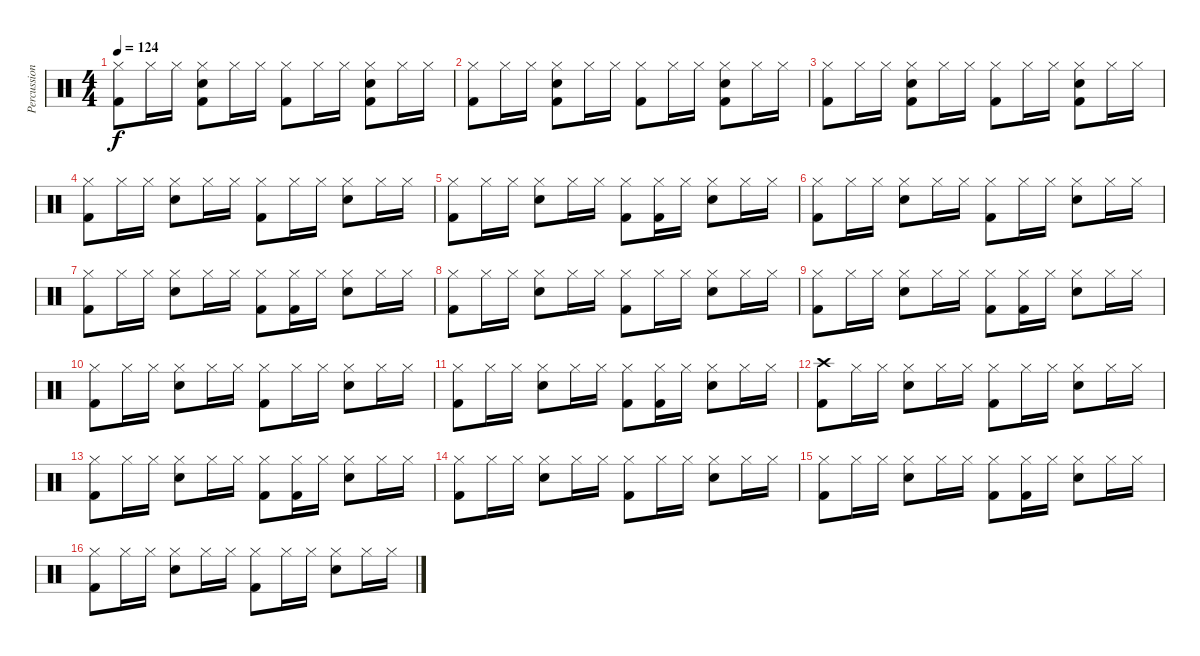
\track ("Percussion" "Percussion") {instrument percussion}
\staff {score}
\articulation defaults
\ts (4 4)
\tempo 124
\clef neutral
\ks c
("Hi-Hat (closed)" "Kick (hit) 2").8{dy f} "Hi-Hat (closed)".16 "Hi-Hat (closed)".16 ("Hi-Hat (closed)" "Snare (hit) 2" "Kick (hit) 2").8 "Hi-Hat (closed)".16 "Hi-Hat (closed)".16 ("Hi-Hat (closed)" "Kick (hit) 2").8 "Hi-Hat (closed)".16 "Hi-Hat (closed)".16 ("Hi-Hat (closed)" "Snare (hit) 2" "Kick (hit) 2").8 "Hi-Hat (closed)".16 "Hi-Hat (closed)".16 |
("Hi-Hat (closed)" "Kick (hit) 2").8 "Hi-Hat (closed)".16 "Hi-Hat (closed)".16 ("Hi-Hat (closed)" "Snare (hit) 2" "Kick (hit) 2").8 "Hi-Hat (closed)".16 "Hi-Hat (closed)".16 ("Hi-Hat (closed)" "Kick (hit) 2").8 "Hi-Hat (closed)".16 "Hi-Hat (closed)".16 ("Hi-Hat (closed)" "Snare (hit) 2" "Kick (hit) 2").8 "Hi-Hat (closed)".16 "Hi-Hat (closed)".16 |
("Hi-Hat (closed)" "Kick (hit) 2").8 "Hi-Hat (closed)".16 "Hi-Hat (closed)".16 ("Hi-Hat (closed)" "Snare (hit) 2" "Kick (hit) 2").8 "Hi-Hat (closed)".16 "Hi-Hat (closed)".16 ("Hi-Hat (closed)" "Kick (hit) 2").8 "Hi-Hat (closed)".16 "Hi-Hat (closed)".16 ("Hi-Hat (closed)" "Snare (hit) 2" "Kick (hit) 2").8 "Hi-Hat (closed)".16 "Hi-Hat (closed)".16 |
("Hi-Hat (closed)" "Kick (hit) 2").8 "Hi-Hat (closed)".16 "Hi-Hat (closed)".16 ("Hi-Hat (closed)" "Snare (hit) 2").8 "Hi-Hat (closed)".16 "Hi-Hat (closed)".16 ("Hi-Hat (closed)" "Kick (hit) 2").8 "Hi-Hat (closed)".16 "Hi-Hat (closed)".16 ("Hi-Hat (closed)" "Snare (hit) 2").8 "Hi-Hat (closed)".16 "Hi-Hat (closed)".16 |
("Hi-Hat (closed)" "Kick (hit) 2").8 "Hi-Hat (closed)".16 "Hi-Hat (closed)".16 ("Hi-Hat (closed)" "Snare (hit) 2").8 "Hi-Hat (closed)".16 "Hi-Hat (closed)".16 ("Hi-Hat (closed)" "Kick (hit) 2").8 ("Hi-Hat (closed)" "Kick (hit) 2").16 "Hi-Hat (closed)".16 ("Hi-Hat (closed)" "Snare (hit) 2").8 "Hi-Hat (closed)".16 "Hi-Hat (closed)".16 |
("Hi-Hat (closed)" "Kick (hit) 2").8 "Hi-Hat (closed)".16 "Hi-Hat (closed)".16 ("Hi-Hat (closed)" "Snare (hit) 2").8 "Hi-Hat (closed)".16 "Hi-Hat (closed)".16 ("Hi-Hat (closed)" "Kick (hit) 2").8 "Hi-Hat (closed)".16 "Hi-Hat (closed)".16 ("Hi-Hat (closed)" "Snare (hit) 2").8 "Hi-Hat (closed)".16 "Hi-Hat (closed)".16 |
("Hi-Hat (closed)" "Kick (hit) 2").8 "Hi-Hat (closed)".16 "Hi-Hat (closed)".16 ("Hi-Hat (closed)" "Snare (hit) 2").8 "Hi-Hat (closed)".16 "Hi-Hat (closed)".16 ("Hi-Hat (closed)" "Kick (hit) 2").8 ("Hi-Hat (closed)" "Kick (hit) 2").16 "Hi-Hat (closed)".16 ("Hi-Hat (closed)" "Snare (hit) 2").8 "Hi-Hat (closed)".16 "Hi-Hat (closed)".16 |
("Hi-Hat (closed)" "Kick (hit) 2").8 "Hi-Hat (closed)".16 "Hi-Hat (closed)".16 ("Hi-Hat (closed)" "Snare (hit) 2").8 "Hi-Hat (closed)".16 "Hi-Hat (closed)".16 ("Hi-Hat (closed)" "Kick (hit) 2").8 "Hi-Hat (closed)".16 "Hi-Hat (closed)".16 ("Hi-Hat (closed)" "Snare (hit) 2").8 "Hi-Hat (closed)".16 "Hi-Hat (closed)".16 |
("Hi-Hat (closed)" "Kick (hit) 2").8 "Hi-Hat (closed)".16 "Hi-Hat (closed)".16 ("Hi-Hat (closed)" "Snare (hit) 2").8 "Hi-Hat (closed)".16 "Hi-Hat (closed)".16 ("Hi-Hat (closed)" "Kick (hit) 2").8 ("Hi-Hat (closed)" "Kick (hit) 2").16 "Hi-Hat (closed)".16 ("Hi-Hat (closed)" "Snare (hit) 2").8 "Hi-Hat (closed)".16 "Hi-Hat (closed)".16 |
("Hi-Hat (closed)" "Kick (hit) 2").8 "Hi-Hat (closed)".16 "Hi-Hat (closed)".16 ("Hi-Hat (closed)" "Snare (hit) 2").8 "Hi-Hat (closed)".16 "Hi-Hat (closed)".16 ("Hi-Hat (closed)" "Kick (hit) 2").8 "Hi-Hat (closed)".16 "Hi-Hat (closed)".16 ("Hi-Hat (closed)" "Snare (hit) 2").8 "Hi-Hat (closed)".16 "Hi-Hat (closed)".16 |
("Hi-Hat (closed)" "Kick (hit) 2").8 "Hi-Hat (closed)".16 "Hi-Hat (closed)".16 ("Hi-Hat (closed)" "Snare (hit) 2").8 "Hi-Hat (closed)".16 "Hi-Hat (closed)".16 ("Hi-Hat (closed)" "Kick (hit) 2").8 ("Hi-Hat (closed)" "Kick (hit) 2").16 "Hi-Hat (closed)".16 ("Hi-Hat (closed)" "Snare (hit) 2").8 "Hi-Hat (closed)".16 "Hi-Hat (closed)".16 |
("Crash high (hit)" "Kick (hit) 2").8 "Hi-Hat (closed)".16 "Hi-Hat (closed)".16 ("Hi-Hat (closed)" "Snare (hit) 2").8 "Hi-Hat (closed)".16 "Hi-Hat (closed)".16 ("Hi-Hat (closed)" "Kick (hit) 2").8 "Hi-Hat (closed)".16 "Hi-Hat (closed)".16 ("Hi-Hat (closed)" "Snare (hit) 2").8 "Hi-Hat (closed)".16 "Hi-Hat (closed)".16 |
("Hi-Hat (closed)" "Kick (hit) 2").8 "Hi-Hat (closed)".16 "Hi-Hat (closed)".16 ("Hi-Hat (closed)" "Snare (hit) 2").8 "Hi-Hat (closed)".16 "Hi-Hat (closed)".16 ("Hi-Hat (closed)" "Kick (hit) 2").8 ("Hi-Hat (closed)" "Kick (hit) 2").16 "Hi-Hat (closed)".16 ("Hi-Hat (closed)" "Snare (hit) 2").8 "Hi-Hat (closed)".16 "Hi-Hat (closed)".16 |
("Hi-Hat (closed)" "Kick (hit) 2").8 "Hi-Hat (closed)".16 "Hi-Hat (closed)".16 ("Hi-Hat (closed)" "Snare (hit) 2").8 "Hi-Hat (closed)".16 "Hi-Hat (closed)".16 ("Hi-Hat (closed)" "Kick (hit) 2").8 "Hi-Hat (closed)".16 "Hi-Hat (closed)".16 ("Hi-Hat (closed)" "Snare (hit) 2").8 "Hi-Hat (closed)".16 "Hi-Hat (closed)".16 |
("Hi-Hat (closed)" "Kick (hit) 2").8 "Hi-Hat (closed)".16 "Hi-Hat (closed)".16 ("Hi-Hat (closed)" "Snare (hit) 2").8 "Hi-Hat (closed)".16 "Hi-Hat (closed)".16 ("Hi-Hat (closed)" "Kick (hit) 2").8 ("Hi-Hat (closed)" "Kick (hit) 2").16 "Hi-Hat (closed)".16 ("Hi-Hat (closed)" "Snare (hit) 2").8 "Hi-Hat (closed)".16 "Hi-Hat (closed)".16 |
("Hi-Hat (closed)" "Kick (hit) 2").8 "Hi-Hat (closed)".16 "Hi-Hat (closed)".16 ("Hi-Hat (closed)" "Snare (hit) 2").8 "Hi-Hat (closed)".16 "Hi-Hat (closed)".16 ("Hi-Hat (closed)" "Kick (hit) 2").8 "Hi-Hat (closed)".16 "Hi-Hat (closed)".16 ("Hi-Hat (closed)" "Snare (hit) 2").8 "Hi-Hat (closed)".16 "Hi-Hat (closed)".16
